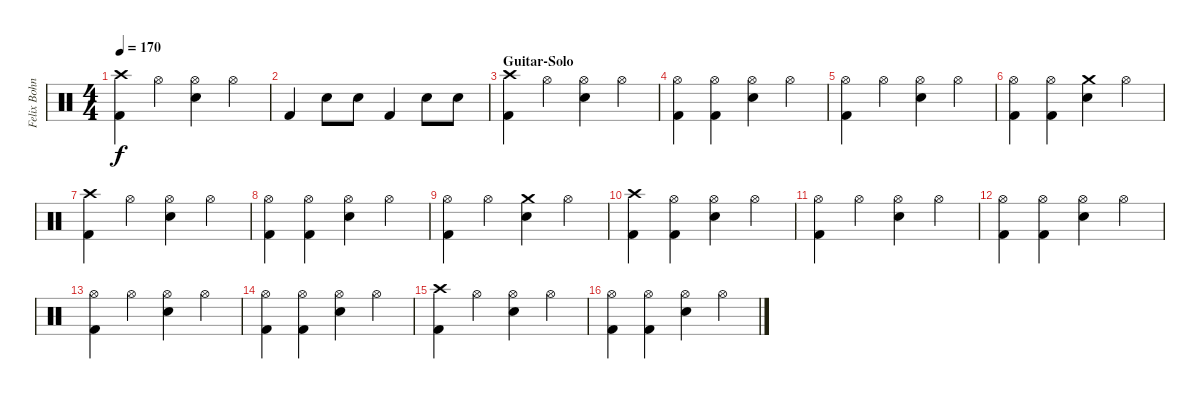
\track ("Felix Bohnke" "Felix Bohn") {instrument percussion}
\staff {score}
\articulation defaults
\ts (4 4)
\tempo 170
\clef neutral
\ks c
("Crash high (hit)" "Kick (hit) 2").4{dy f} "Hi-Hat (open)".4 ("Hi-Hat (open)" "Snare (hit) 2").4 "Hi-Hat (open)".4 |
"Kick (hit) 2".4 "Snare (hit) 2".8 "Snare (hit) 2".8 "Kick (hit) 2".4 "Snare (hit) 2".8 "Snare (hit) 2".8 |
\section ("" "Guitar-Solo")
("Crash high (hit)" "Kick (hit) 2").4 "Hi-Hat (open)".4 ("Hi-Hat (open)" "Snare (hit) 2").4 "Hi-Hat (open)".4 |
("Hi-Hat (open)" "Kick (hit) 2").4 ("Hi-Hat (open)" "Kick (hit) 2").4 ("Hi-Hat (open)" "Snare (hit) 2").4 "Hi-Hat (open)".4 |
("Hi-Hat (open)" "Kick (hit) 2").4 "Hi-Hat (open)".4 ("Hi-Hat (open)" "Snare (hit) 2").4 "Hi-Hat (open)".4 |
("Hi-Hat (open)" "Kick (hit) 2").4 ("Hi-Hat (open)" "Kick (hit) 2").4 ("Crash medium (hit)" "Snare (hit) 2").4 "Hi-Hat (open)".4 |
("Crash high (hit)" "Kick (hit) 2").4 "Hi-Hat (open)".4 ("Hi-Hat (open)" "Snare (hit) 2").4 "Hi-Hat (open)".4 |
("Hi-Hat (open)" "Kick (hit) 2").4 ("Hi-Hat (open)" "Kick (hit) 2").4 ("Hi-Hat (open)" "Snare (hit) 2").4 "Hi-Hat (open)".4 |
("Hi-Hat (open)" "Kick (hit) 2").4 "Hi-Hat (open)".4 ("Crash medium (hit)" "Snare (hit) 2").4 "Hi-Hat (open)".4 |
("Crash high (hit)" "Kick (hit) 2").4 ("Hi-Hat (open)" "Kick (hit) 2").4 ("Hi-Hat (open)" "Snare (hit) 2").4 "Hi-Hat (open)".4 |
("Hi-Hat (open)" "Kick (hit) 2").4 "Hi-Hat (open)".4 ("Hi-Hat (open)" "Snare (hit) 2").4 "Hi-Hat (open)".4 |
("Hi-Hat (open)" "Kick (hit) 2").4 ("Hi-Hat (open)" "Kick (hit) 2").4 ("Hi-Hat (open)" "Snare (hit) 2").4 "Hi-Hat (open)".4 |
("Hi-Hat (open)" "Kick (hit) 2").4 "Hi-Hat (open)".4 ("Hi-Hat (open)" "Snare (hit) 2").4 "Hi-Hat (open)".4 |
("Hi-Hat (open)" "Kick (hit) 2").4 ("Hi-Hat (open)" "Kick (hit) 2").4 ("Hi-Hat (open)" "Snare (hit) 2").4 "Hi-Hat (open)".4 |
("Crash high (hit)" "Kick (hit) 2").4 "Hi-Hat (open)".4 ("Hi-Hat (open)" "Snare (hit) 2").4 "Hi-Hat (open)".4 |
("Hi-Hat (open)" "Kick (hit) 2").4 ("Hi-Hat (open)" "Kick (hit) 2").4 ("Hi-Hat (open)" "Snare (hit) 2").4 "Hi-Hat (open)".4
